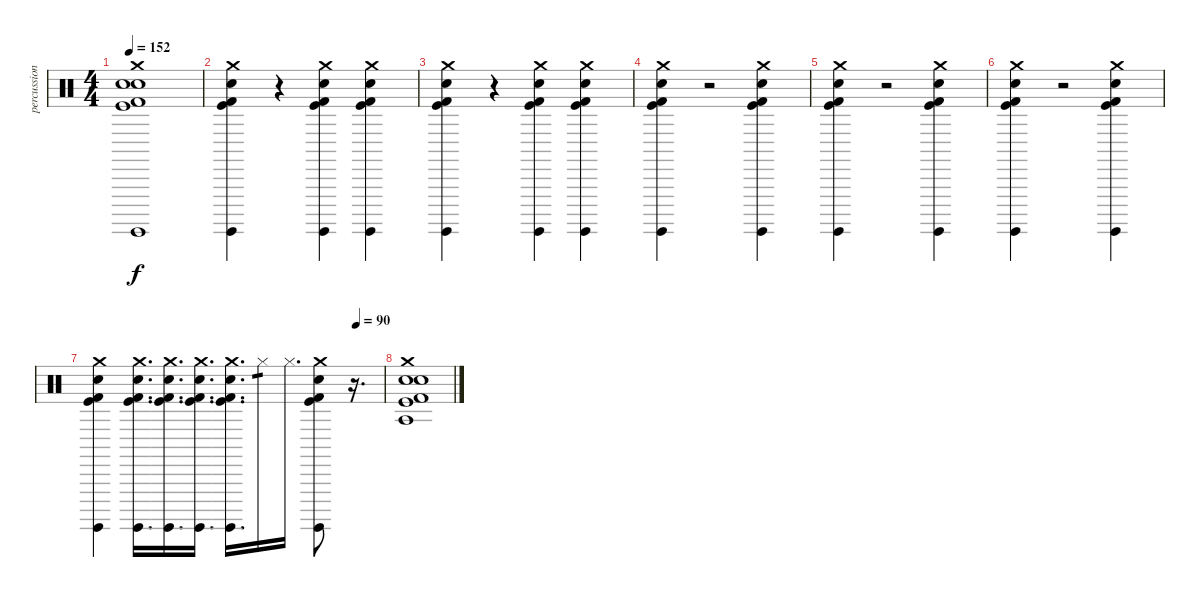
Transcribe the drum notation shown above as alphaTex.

\track ("percussion" "percussion") {instrument percussion}
\staff {score}
\articulation defaults
\ts (4 4)
\tempo 152
\clef neutral
\ks c
("Crash medium (hit)" "Electric Snare (hit)" "Snare (hit) 2" "Surdo (hit)" "Kick (hit)" "Kick (hit) 2").1{dy f} |
("Crash medium (hit)" "Electric Snare (hit)" "Surdo (hit)" "Kick (hit)" "Kick (hit) 2").4 r.4 ("Crash medium (hit)" "Electric Snare (hit)" "Surdo (hit)" "Kick (hit)" "Kick (hit) 2").4 ("Crash medium (hit)" "Electric Snare (hit)" "Surdo (hit)" "Kick (hit)" "Kick (hit) 2").4 |
("Crash medium (hit)" "Electric Snare (hit)" "Surdo (hit)" "Kick (hit)" "Kick (hit) 2").4 r.4 ("Crash medium (hit)" "Electric Snare (hit)" "Surdo (hit)" "Kick (hit) 2" "Kick (hit)").4 ("Crash medium (hit)" "Electric Snare (hit)" "Surdo (hit)" "Kick (hit) 2" "Kick (hit)").4 |
("Crash medium (hit)" "Electric Snare (hit)" "Surdo (hit)" "Kick (hit)" "Kick (hit) 2").4 r.2 ("Crash medium (hit)" "Electric Snare (hit)" "Surdo (hit)" "Kick (hit) 2" "Kick (hit)").4 |
("Crash medium (hit)" "Electric Snare (hit)" "Surdo (hit)" "Kick (hit)" "Kick (hit) 2").4 r.2 ("Crash medium (hit)" "Electric Snare (hit)" "Surdo (hit)" "Kick (hit) 2" "Kick (hit)").4 |
("Crash medium (hit)" "Electric Snare (hit)" "Surdo (hit)" "Kick (hit)" "Kick (hit) 2").4 r.2 ("Crash medium (hit)" "Electric Snare (hit)" "Surdo (hit)" "Kick (hit) 2" "Kick (hit)").4 |
\tempo (90 0.90625)
("Crash medium (hit)" "Electric Snare (hit)" "Surdo (hit)" "Kick (hit)" "Kick (hit) 2").4 ("Crash medium (hit)" "Electric Snare (hit)" "Surdo (hit)" "Kick (hit) 2" "Kick (hit)").16{d} ("Crash medium (hit)" "Electric Snare (hit)" "Surdo (hit)" "Kick (hit) 2" "Kick (hit)").16{d} ("Crash medium (hit)" "Electric Snare (hit)" "Surdo (hit)" "Kick (hit) 2" "Kick (hit)").16{d} ("Crash medium (hit)" "Electric Snare (hit)" "Surdo (hit)" "Kick (hit) 2" "Kick (hit)").16{d} "Hi-Hat (closed)".16{tp 1} "Hi-Hat (closed)".16{d} ("Crash medium (hit)" "Electric Snare (hit)" "Surdo (hit)" "Kick (hit) 2" "Kick (hit)").8 r.16{d} |
("Crash medium (hit)" "Electric Snare (hit)" "Snare (hit) 2" "Agogo tow (hit)" "Kick (hit)" "Kick (hit) 2").1
